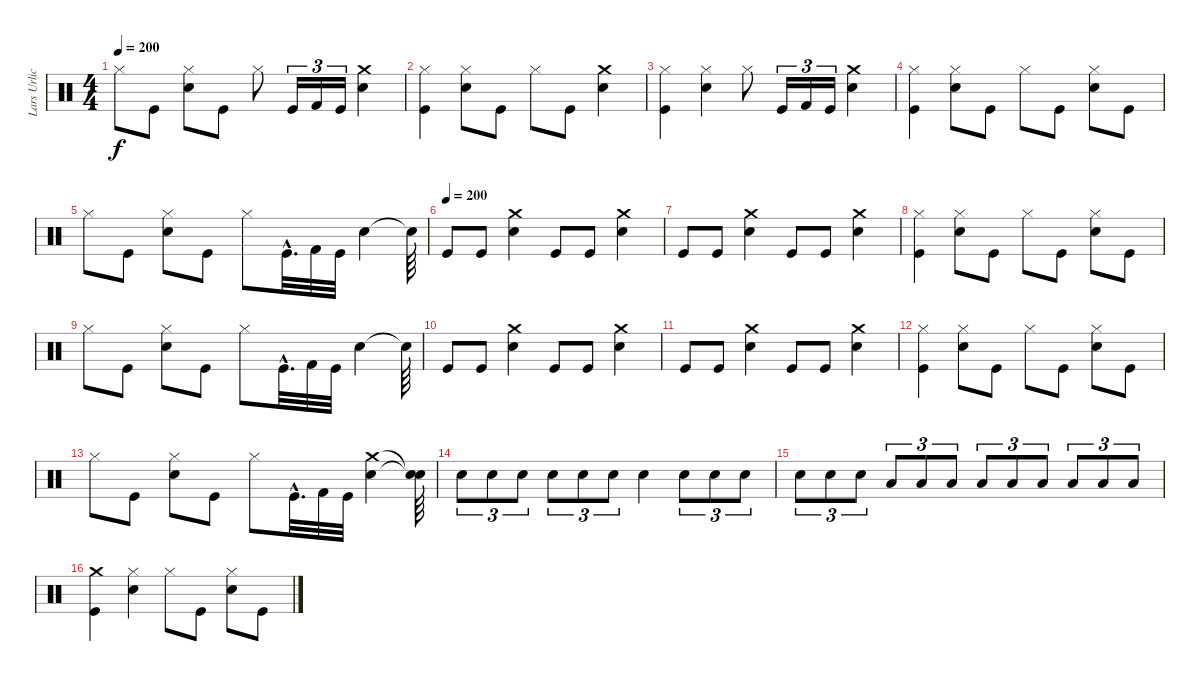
\track ("Lars Urlich" "Lars Urlic") {instrument percussion}
\staff {score}
\articulation defaults
\ts (4 4)
\tempo 200
\clef neutral
\ks c "Hi-Hat (closed)".8{dy f} "Kick (hit)".8
("Snare (hit) 2" "Hi-Hat (closed)").8 "Kick (hit)".8 "Hi-Hat (closed)".8 "Kick (hit)".16{tu (3 2)} "Kick (hit) 2".16{tu (3 2)} "Kick (hit)".16{tu (3 2)} ("Crash medium (hit)" "Snare (hit) 2").4 |
("Hi-Hat (closed)" "Kick (hit)").4 ("Snare (hit) 2" "Hi-Hat (closed)").8 "Kick (hit)".8 "Hi-Hat (closed)".8 "Kick (hit)".8 ("Crash medium (hit)" "Snare (hit) 2").4 |
("Hi-Hat (closed)" "Kick (hit)").4 ("Snare (hit) 2" "Hi-Hat (closed)").4 "Hi-Hat (closed)".8 "Kick (hit)".16{tu (3 2)} "Kick (hit) 2".16{tu (3 2)} "Kick (hit)".16{tu (3 2)} ("Crash medium (hit)" "Snare (hit) 2").4 |
("Hi-Hat (closed)" "Kick (hit)").4 ("Hi-Hat (closed)" "Snare (hit) 2").8 "Kick (hit)".8 "Hi-Hat (closed)".8 "Kick (hit)".8 ("Snare (hit) 2" "Hi-Hat (closed)").8 "Kick (hit)".8 |
"Hi-Hat (closed)".8 "Kick (hit)".8 ("Snare (hit) 2" "Hi-Hat (closed)").8 "Kick (hit)".8 "Hi-Hat (closed)".8 "Kick (hit)"{hac}.32{d} "Kick (hit) 2".32 "Kick (hit)".32 "Snare (hit) 2".4 "Snare (hit)"{t}.64 |
\tempo (200)
"Kick (hit)".8 "Kick (hit)".8 ("Crash medium (hit)" "Snare (hit) 2").4 "Kick (hit)".8 "Kick (hit)".8 ("Snare (hit) 2" "Crash medium (hit)").4 |
"Kick (hit)".8 "Kick (hit)".8 ("Snare (hit) 2" "Crash medium (hit)").4 "Kick (hit)".8 "Kick (hit)".8 ("Snare (hit) 2" "Crash medium (hit)").4 |
("Hi-Hat (closed)" "Kick (hit)").4 ("Snare (hit) 2" "Hi-Hat (closed)").8 "Kick (hit)".8 "Hi-Hat (closed)".8 "Kick (hit)".8 ("Snare (hit) 2" "Hi-Hat (closed)").8 "Kick (hit)".8 |
"Hi-Hat (closed)".8 "Kick (hit)".8 ("Snare (hit) 2" "Hi-Hat (closed)").8 "Kick (hit)".8 "Hi-Hat (closed)".8 "Kick (hit)"{hac}.32{d} "Kick (hit) 2".32 "Kick (hit)".32 "Snare (hit) 2".4 "Snare (hit)"{t}.64 |
"Kick (hit)".8 "Kick (hit)".8 ("Crash medium (hit)" "Snare (hit) 2").4 "Kick (hit)".8 "Kick (hit)".8 ("Snare (hit) 2" "Crash medium (hit)").4 |
"Kick (hit)".8 "Kick (hit)".8 ("Snare (hit) 2" "Crash medium (hit)").4 "Kick (hit)".8 "Kick (hit)".8 ("Snare (hit) 2" "Crash medium (hit)").4 |
("Hi-Hat (closed)" "Kick (hit)").4 ("Snare (hit) 2" "Hi-Hat (closed)").8 "Kick (hit)".8 "Hi-Hat (closed)".8 "Kick (hit)".8 ("Snare (hit) 2" "Hi-Hat (closed)").8 "Kick (hit)".8 |
"Hi-Hat (closed)".8 "Kick (hit)".8 ("Snare (hit) 2" "Hi-Hat (closed)").8 "Kick (hit)".8 "Hi-Hat (closed)".8 "Kick (hit)"{hac}.32{d} "Kick (hit) 2".32 "Kick (hit)".32 ("Crash medium (hit)" "Snare (hit) 2").4 ("Snare (hit)"{t} "Snare (hit)"{t}).64 |
"Snare (hit) 2".8{tu (3 2)} "Snare (hit) 2".8{tu (3 2)} "Snare (hit) 2".8{tu (3 2)} "Snare (hit) 2".8{tu (3 2)} "Snare (hit) 2".8{tu (3 2)} "Snare (hit) 2".8{tu (3 2)} "Snare (hit) 2".4 "Snare (hit) 2".8{tu (3 2)} "Snare (hit) 2".8{tu (3 2)} "Snare (hit) 2".8{tu (3 2)} |
"Snare (hit) 2".8{tu (3 2)} "Snare (hit) 2".8{tu (3 2)} "Snare (hit) 2".8{tu (3 2)} "Low Tom (hit)".8{tu (3 2)} "Low Tom (hit)".8{tu (3 2)} "Low Tom (hit)".8{tu (3 2)} "Low Tom (hit)".8{tu (3 2)} "Low Tom (hit)".8{tu (3 2)} "Low Tom (hit)".8{tu (3 2)} "Low Tom (hit)".8{tu (3 2)} "Low Tom (hit)".8{tu (3 2)} "Low Tom (hit)".8{tu (3 2)} |
("Crash medium (hit)" "Kick (hit)").4 ("Hi-Hat (closed)" "Snare (hit) 2").4 "Hi-Hat (closed)".8 "Kick (hit)".8 ("Snare (hit) 2" "Hi-Hat (closed)").8 "Kick (hit)".8
